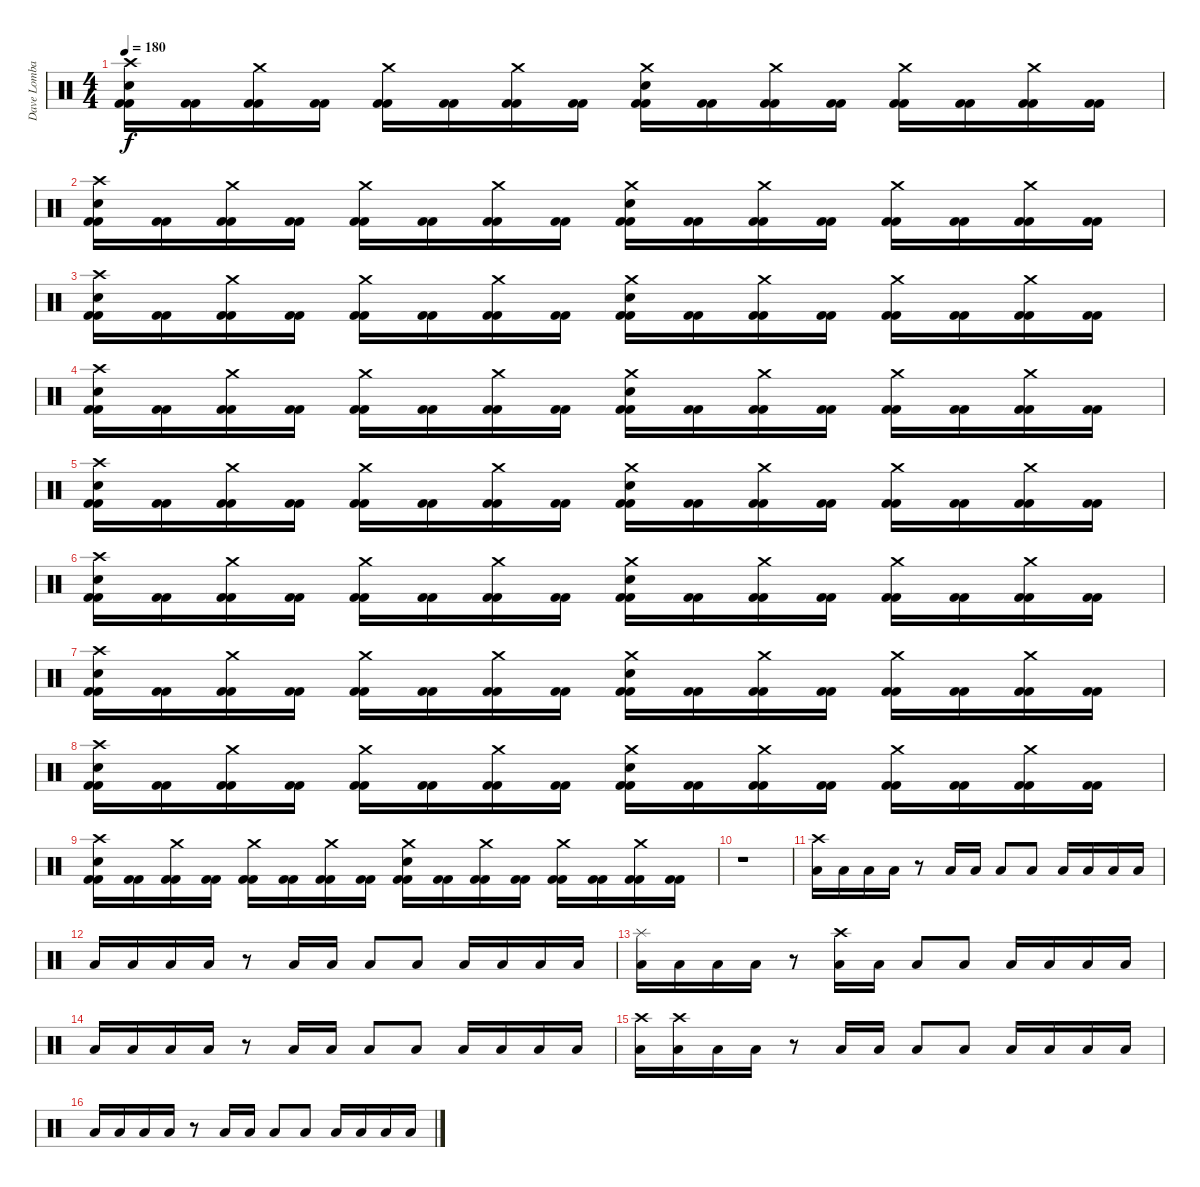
\track ("Dave Lombardo" "Dave Lomba") {instrument percussion}
\staff {score}
\articulation defaults
\ts (4 4)
\tempo 180
\clef neutral
\ks c
("Crash high (hit)" "Electric Snare (hit)" "Kick (hit) 2" "Kick (hit) 2").16{dy f} ("Kick (hit) 2" "Kick (hit) 2").16 ("Crash medium (hit)" "Kick (hit) 2" "Kick (hit) 2").16 ("Kick (hit) 2" "Kick (hit) 2").16 ("Crash medium (hit)" "Kick (hit) 2" "Kick (hit) 2").16 ("Kick (hit) 2" "Kick (hit) 2").16 ("Crash medium (hit)" "Kick (hit) 2" "Kick (hit) 2").16 ("Kick (hit) 2" "Kick (hit) 2").16 ("Crash medium (hit)" "Electric Snare (hit)" "Kick (hit) 2" "Kick (hit) 2").16 ("Kick (hit) 2" "Kick (hit) 2").16 ("Crash medium (hit)" "Kick (hit) 2" "Kick (hit) 2").16 ("Kick (hit) 2" "Kick (hit) 2").16 ("Crash medium (hit)" "Kick (hit) 2" "Kick (hit) 2").16 ("Kick (hit) 2" "Kick (hit) 2").16 ("Crash medium (hit)" "Kick (hit) 2" "Kick (hit) 2").16 ("Kick (hit) 2" "Kick (hit) 2").16 |
("Crash high (hit)" "Electric Snare (hit)" "Kick (hit) 2" "Kick (hit) 2").16 ("Kick (hit) 2" "Kick (hit) 2").16 ("Crash medium (hit)" "Kick (hit) 2" "Kick (hit) 2").16 ("Kick (hit) 2" "Kick (hit) 2").16 ("Crash medium (hit)" "Kick (hit) 2" "Kick (hit) 2").16 ("Kick (hit) 2" "Kick (hit) 2").16 ("Crash medium (hit)" "Kick (hit) 2" "Kick (hit) 2").16 ("Kick (hit) 2" "Kick (hit) 2").16 ("Crash medium (hit)" "Electric Snare (hit)" "Kick (hit) 2" "Kick (hit) 2").16 ("Kick (hit) 2" "Kick (hit) 2").16 ("Crash medium (hit)" "Kick (hit) 2" "Kick (hit) 2").16 ("Kick (hit) 2" "Kick (hit) 2").16 ("Crash medium (hit)" "Kick (hit) 2" "Kick (hit) 2").16 ("Kick (hit) 2" "Kick (hit) 2").16 ("Crash medium (hit)" "Kick (hit) 2" "Kick (hit) 2").16 ("Kick (hit) 2" "Kick (hit) 2").16 |
("Crash high (hit)" "Electric Snare (hit)" "Kick (hit) 2" "Kick (hit) 2").16 ("Kick (hit) 2" "Kick (hit) 2").16 ("Crash medium (hit)" "Kick (hit) 2" "Kick (hit) 2").16 ("Kick (hit) 2" "Kick (hit) 2").16 ("Crash medium (hit)" "Kick (hit) 2" "Kick (hit) 2").16 ("Kick (hit) 2" "Kick (hit) 2").16 ("Crash medium (hit)" "Kick (hit) 2" "Kick (hit) 2").16 ("Kick (hit) 2" "Kick (hit) 2").16 ("Crash medium (hit)" "Electric Snare (hit)" "Kick (hit) 2" "Kick (hit) 2").16 ("Kick (hit) 2" "Kick (hit) 2").16 ("Crash medium (hit)" "Kick (hit) 2" "Kick (hit) 2").16 ("Kick (hit) 2" "Kick (hit) 2").16 ("Crash medium (hit)" "Kick (hit) 2" "Kick (hit) 2").16 ("Kick (hit) 2" "Kick (hit) 2").16 ("Crash medium (hit)" "Kick (hit) 2" "Kick (hit) 2").16 ("Kick (hit) 2" "Kick (hit) 2").16 |
("Crash high (hit)" "Electric Snare (hit)" "Kick (hit) 2" "Kick (hit) 2").16 ("Kick (hit) 2" "Kick (hit) 2").16 ("Crash medium (hit)" "Kick (hit) 2" "Kick (hit) 2").16 ("Kick (hit) 2" "Kick (hit) 2").16 ("Crash medium (hit)" "Kick (hit) 2" "Kick (hit) 2").16 ("Kick (hit) 2" "Kick (hit) 2").16 ("Crash medium (hit)" "Kick (hit) 2" "Kick (hit) 2").16 ("Kick (hit) 2" "Kick (hit) 2").16 ("Crash medium (hit)" "Electric Snare (hit)" "Kick (hit) 2" "Kick (hit) 2").16 ("Kick (hit) 2" "Kick (hit) 2").16 ("Crash medium (hit)" "Kick (hit) 2" "Kick (hit) 2").16 ("Kick (hit) 2" "Kick (hit) 2").16 ("Crash medium (hit)" "Kick (hit) 2" "Kick (hit) 2").16 ("Kick (hit) 2" "Kick (hit) 2").16 ("Crash medium (hit)" "Kick (hit) 2" "Kick (hit) 2").16 ("Kick (hit) 2" "Kick (hit) 2").16 |
("Crash high (hit)" "Electric Snare (hit)" "Kick (hit) 2" "Kick (hit) 2").16 ("Kick (hit) 2" "Kick (hit) 2").16 ("Crash medium (hit)" "Kick (hit) 2" "Kick (hit) 2").16 ("Kick (hit) 2" "Kick (hit) 2").16 ("Crash medium (hit)" "Kick (hit) 2" "Kick (hit) 2").16 ("Kick (hit) 2" "Kick (hit) 2").16 ("Crash medium (hit)" "Kick (hit) 2" "Kick (hit) 2").16 ("Kick (hit) 2" "Kick (hit) 2").16 ("Crash medium (hit)" "Electric Snare (hit)" "Kick (hit) 2" "Kick (hit) 2").16 ("Kick (hit) 2" "Kick (hit) 2").16 ("Crash medium (hit)" "Kick (hit) 2" "Kick (hit) 2").16 ("Kick (hit) 2" "Kick (hit) 2").16 ("Crash medium (hit)" "Kick (hit) 2" "Kick (hit) 2").16 ("Kick (hit) 2" "Kick (hit) 2").16 ("Crash medium (hit)" "Kick (hit) 2" "Kick (hit) 2").16 ("Kick (hit) 2" "Kick (hit) 2").16 |
("Crash high (hit)" "Electric Snare (hit)" "Kick (hit) 2" "Kick (hit) 2").16 ("Kick (hit) 2" "Kick (hit) 2").16 ("Crash medium (hit)" "Kick (hit) 2" "Kick (hit) 2").16 ("Kick (hit) 2" "Kick (hit) 2").16 ("Crash medium (hit)" "Kick (hit) 2" "Kick (hit) 2").16 ("Kick (hit) 2" "Kick (hit) 2").16 ("Crash medium (hit)" "Kick (hit) 2" "Kick (hit) 2").16 ("Kick (hit) 2" "Kick (hit) 2").16 ("Crash medium (hit)" "Electric Snare (hit)" "Kick (hit) 2" "Kick (hit) 2").16 ("Kick (hit) 2" "Kick (hit) 2").16 ("Crash medium (hit)" "Kick (hit) 2" "Kick (hit) 2").16 ("Kick (hit) 2" "Kick (hit) 2").16 ("Crash medium (hit)" "Kick (hit) 2" "Kick (hit) 2").16 ("Kick (hit) 2" "Kick (hit) 2").16 ("Crash medium (hit)" "Kick (hit) 2" "Kick (hit) 2").16 ("Kick (hit) 2" "Kick (hit) 2").16 |
("Crash high (hit)" "Electric Snare (hit)" "Kick (hit) 2" "Kick (hit) 2").16 ("Kick (hit) 2" "Kick (hit) 2").16 ("Crash medium (hit)" "Kick (hit) 2" "Kick (hit) 2").16 ("Kick (hit) 2" "Kick (hit) 2").16 ("Crash medium (hit)" "Kick (hit) 2" "Kick (hit) 2").16 ("Kick (hit) 2" "Kick (hit) 2").16 ("Crash medium (hit)" "Kick (hit) 2" "Kick (hit) 2").16 ("Kick (hit) 2" "Kick (hit) 2").16 ("Crash medium (hit)" "Electric Snare (hit)" "Kick (hit) 2" "Kick (hit) 2").16 ("Kick (hit) 2" "Kick (hit) 2").16 ("Crash medium (hit)" "Kick (hit) 2" "Kick (hit) 2").16 ("Kick (hit) 2" "Kick (hit) 2").16 ("Crash medium (hit)" "Kick (hit) 2" "Kick (hit) 2").16 ("Kick (hit) 2" "Kick (hit) 2").16 ("Crash medium (hit)" "Kick (hit) 2" "Kick (hit) 2").16 ("Kick (hit) 2" "Kick (hit) 2").16 |
("Crash high (hit)" "Electric Snare (hit)" "Kick (hit) 2" "Kick (hit) 2").16 ("Kick (hit) 2" "Kick (hit) 2").16 ("Crash medium (hit)" "Kick (hit) 2" "Kick (hit) 2").16 ("Kick (hit) 2" "Kick (hit) 2").16 ("Crash medium (hit)" "Kick (hit) 2" "Kick (hit) 2").16 ("Kick (hit) 2" "Kick (hit) 2").16 ("Crash medium (hit)" "Kick (hit) 2" "Kick (hit) 2").16 ("Kick (hit) 2" "Kick (hit) 2").16 ("Crash medium (hit)" "Electric Snare (hit)" "Kick (hit) 2" "Kick (hit) 2").16 ("Kick (hit) 2" "Kick (hit) 2").16 ("Crash medium (hit)" "Kick (hit) 2" "Kick (hit) 2").16 ("Kick (hit) 2" "Kick (hit) 2").16 ("Crash medium (hit)" "Kick (hit) 2" "Kick (hit) 2").16 ("Kick (hit) 2" "Kick (hit) 2").16 ("Crash medium (hit)" "Kick (hit) 2" "Kick (hit) 2").16 ("Kick (hit) 2" "Kick (hit) 2").16 |
("Crash high (hit)" "Electric Snare (hit)" "Kick (hit) 2" "Kick (hit) 2").16 ("Kick (hit) 2" "Kick (hit) 2").16 ("Crash medium (hit)" "Kick (hit) 2" "Kick (hit) 2").16 ("Kick (hit) 2" "Kick (hit) 2").16 ("Crash medium (hit)" "Kick (hit) 2" "Kick (hit) 2").16 ("Kick (hit) 2" "Kick (hit) 2").16 ("Crash medium (hit)" "Kick (hit) 2" "Kick (hit) 2").16 ("Kick (hit) 2" "Kick (hit) 2").16 ("Crash medium (hit)" "Electric Snare (hit)" "Kick (hit) 2" "Kick (hit) 2").16 ("Kick (hit) 2" "Kick (hit) 2").16 ("Crash medium (hit)" "Kick (hit) 2" "Kick (hit) 2").16 ("Kick (hit) 2" "Kick (hit) 2").16 ("Crash medium (hit)" "Kick (hit) 2" "Kick (hit) 2").16 ("Kick (hit) 2" "Kick (hit) 2").16 ("Crash medium (hit)" "Kick (hit) 2" "Kick (hit) 2").16 ("Kick (hit) 2" "Kick (hit) 2").16 |
r.1 |
("Crash high (hit)" "Low Floor Tom (hit)").16 "Low Floor Tom (hit)".16 "Low Floor Tom (hit)".16 "Low Floor Tom (hit)".16 r.8 "Low Floor Tom (hit)".16 "Low Floor Tom (hit)".16 "Low Floor Tom (hit)".8 "Low Floor Tom (hit)".8 "Low Floor Tom (hit)".16 "Low Floor Tom (hit)".16 "Low Floor Tom (hit)".16 "Low Floor Tom (hit)".16 |
"Low Floor Tom (hit)".16 "Low Floor Tom (hit)".16 "Low Floor Tom (hit)".16 "Low Floor Tom (hit)".16 r.8 "Low Floor Tom (hit)".16 "Low Floor Tom (hit)".16 "Low Floor Tom (hit)".8 "Low Floor Tom (hit)".8 "Low Floor Tom (hit)".16 "Low Floor Tom (hit)".16 "Low Floor Tom (hit)".16 "Low Floor Tom (hit)".16 |
("Splash (hit)" "Low Floor Tom (hit)").16 "Low Floor Tom (hit)".16 "Low Floor Tom (hit)".16 "Low Floor Tom (hit)".16 r.8 ("Crash high (hit)" "Low Floor Tom (hit)").16 "Low Floor Tom (hit)".16 "Low Floor Tom (hit)".8 "Low Floor Tom (hit)".8 "Low Floor Tom (hit)".16 "Low Floor Tom (hit)".16 "Low Floor Tom (hit)".16 "Low Floor Tom (hit)".16 |
"Low Floor Tom (hit)".16 "Low Floor Tom (hit)".16 "Low Floor Tom (hit)".16 "Low Floor Tom (hit)".16 r.8 "Low Floor Tom (hit)".16 "Low Floor Tom (hit)".16 "Low Floor Tom (hit)".8 "Low Floor Tom (hit)".8 "Low Floor Tom (hit)".16 "Low Floor Tom (hit)".16 "Low Floor Tom (hit)".16 "Low Floor Tom (hit)".16 |
("Crash high (hit)" "Low Floor Tom (hit)").16 ("Crash high (hit)" "Low Floor Tom (hit)").16 "Low Floor Tom (hit)".16 "Low Floor Tom (hit)".16 r.8 "Low Floor Tom (hit)".16 "Low Floor Tom (hit)".16 "Low Floor Tom (hit)".8 "Low Floor Tom (hit)".8 "Low Floor Tom (hit)".16 "Low Floor Tom (hit)".16 "Low Floor Tom (hit)".16 "Low Floor Tom (hit)".16 |
"Low Floor Tom (hit)".16 "Low Floor Tom (hit)".16 "Low Floor Tom (hit)".16 "Low Floor Tom (hit)".16 r.8 "Low Floor Tom (hit)".16 "Low Floor Tom (hit)".16 "Low Floor Tom (hit)".8 "Low Floor Tom (hit)".8 "Low Floor Tom (hit)".16 "Low Floor Tom (hit)".16 "Low Floor Tom (hit)".16 "Low Floor Tom (hit)".16
